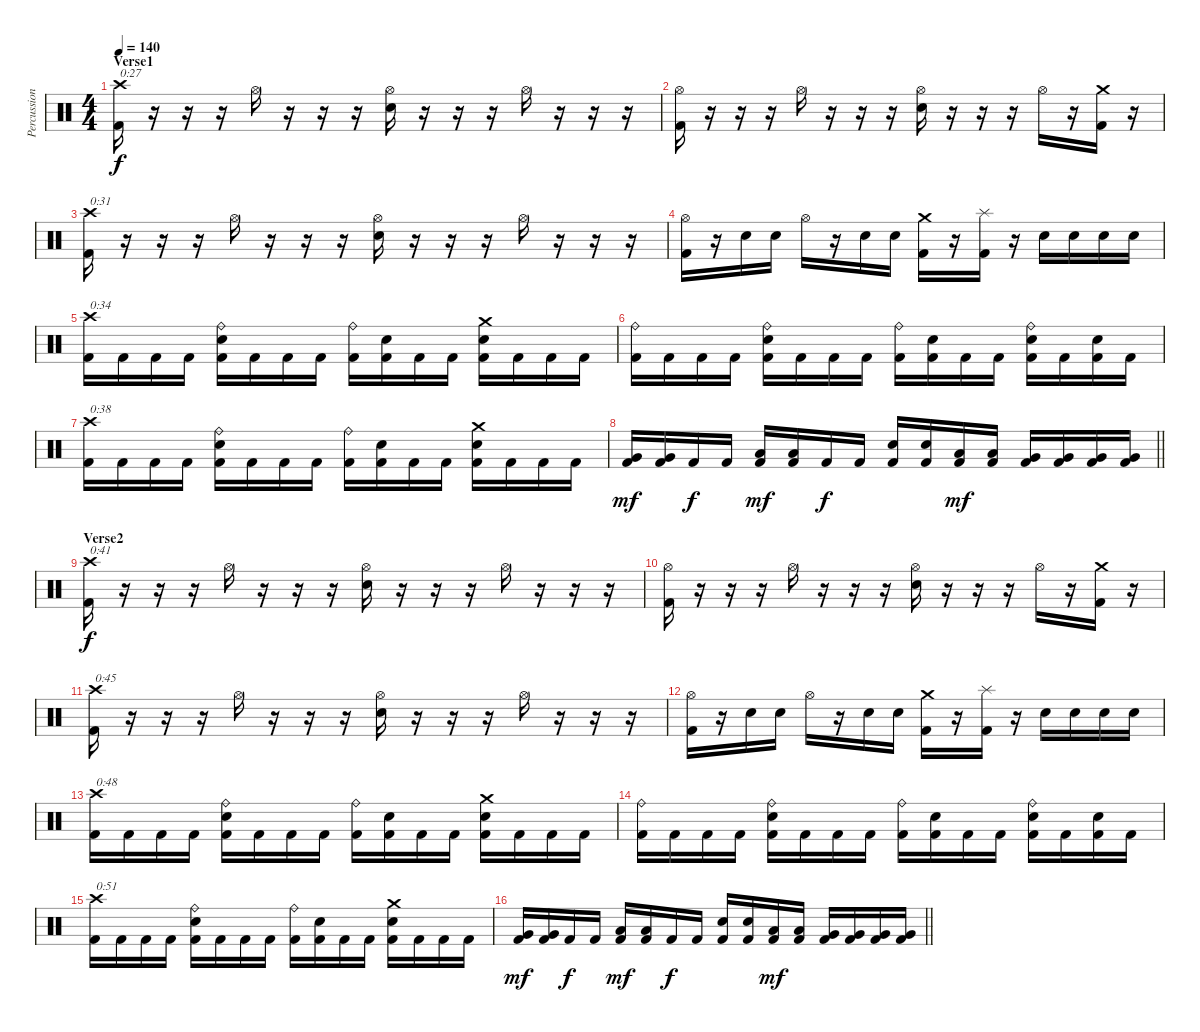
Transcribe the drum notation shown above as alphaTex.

\track ("Percussion" "Percussion") {instrument percussion}
\staff {score}
\articulation defaults
\ts (4 4)
\section ("" "Verse1")
\tempo 140
\clef neutral
\ks c
("Crash high (hit)" "Kick (hit) 2").16{txt "0:27" dy f} r.16 r.16 r.16 "Hi-Hat (open)".16 r.16 r.16 r.16 ("Hi-Hat (open)" "Electric Snare (hit)").16 r.16 r.16 r.16 "Hi-Hat (open)".16 r.16 r.16 r.16 |
("Hi-Hat (open)" "Kick (hit) 2").16 r.16 r.16 r.16 "Hi-Hat (open)".16 r.16 r.16 r.16 ("Hi-Hat (open)" "Electric Snare (hit)").16 r.16 r.16 r.16 "Hi-Hat (open)".16 r.16 ("Crash medium (hit)" "Kick (hit) 2").16 r.16 |
("Crash high (hit)" "Kick (hit) 2").16{txt "0:31"} r.16 r.16 r.16 "Hi-Hat (open)".16 r.16 r.16 r.16 ("Hi-Hat (open)" "Electric Snare (hit)").16 r.16 r.16 r.16 "Hi-Hat (open)".16 r.16 r.16 r.16 |
("Hi-Hat (open)" "Kick (hit) 2").16 r.16 "Electric Snare (hit)".16 "Electric Snare (hit)".16 "Hi-Hat (open)".16 r.16 "Electric Snare (hit)".16 "Electric Snare (hit)".16 ("Crash medium (hit)" "Kick (hit) 2").16 r.16 ("Splash (hit)" "Kick (hit) 2").16 r.16 "Electric Snare (hit)".16 "Electric Snare (hit)".16 "Electric Snare (hit)".16 "Electric Snare (hit)".16 |
("Crash high (hit)" "Kick (hit) 2").16{txt "0:34"} "Kick (hit) 2".16 "Kick (hit) 2".16 "Kick (hit) 2".16 ("Ride (bell)" "Electric Snare (hit)" "Kick (hit) 2").16 "Kick (hit) 2".16 "Kick (hit) 2".16 "Kick (hit) 2".16 ("Ride (bell)" "Kick (hit) 2").16 ("Electric Snare (hit)" "Kick (hit) 2").16 "Kick (hit) 2".16 "Kick (hit) 2".16 ("Crash medium (hit)" "Electric Snare (hit)" "Kick (hit) 2").16 "Kick (hit) 2".16 "Kick (hit) 2".16 "Kick (hit) 2".16 |
("Ride (bell)" "Kick (hit) 2").16 "Kick (hit) 2".16 "Kick (hit) 2".16 "Kick (hit) 2".16 ("Ride (bell)" "Electric Snare (hit)" "Kick (hit) 2").16 "Kick (hit) 2".16 "Kick (hit) 2".16 "Kick (hit) 2".16 ("Ride (bell)" "Kick (hit) 2").16 ("Electric Snare (hit)" "Kick (hit) 2").16 "Kick (hit) 2".16 "Kick (hit) 2".16 ("Ride (bell)" "Electric Snare (hit)" "Kick (hit) 2").16 "Kick (hit) 2".16 ("Electric Snare (hit)" "Kick (hit) 2").16 "Kick (hit) 2".16 |
("Crash high (hit)" "Kick (hit) 2").16{txt "0:38"} "Kick (hit) 2".16 "Kick (hit) 2".16 "Kick (hit) 2".16 ("Ride (bell)" "Electric Snare (hit)" "Kick (hit) 2").16 "Kick (hit) 2".16 "Kick (hit) 2".16 "Kick (hit) 2".16 ("Ride (bell)" "Kick (hit) 2").16 ("Electric Snare (hit)" "Kick (hit) 2").16 "Kick (hit) 2".16 "Kick (hit) 2".16 ("Crash medium (hit)" "Electric Snare (hit)" "Kick (hit) 2").16 "Kick (hit) 2".16 "Kick (hit) 2".16 "Kick (hit) 2".16 |
\barLineRight lightlight
("Very Low Tom (hit)" "Kick (hit) 2").16{dy mf} ("Very Low Tom (hit)" "Kick (hit) 2").16 "Kick (hit) 2".16{dy f} "Kick (hit) 2".16 ("Low Floor Tom (hit)" "Kick (hit) 2").16{dy mf} ("Low Floor Tom (hit)" "Kick (hit) 2").16 "Kick (hit) 2".16{dy f} "Kick (hit) 2".16 ("Electric Snare (hit)" "Kick (hit) 2").16 ("Electric Snare (hit)" "Kick (hit) 2").16 ("Low Tom (hit)" "Kick (hit) 2").16{dy mf} ("Low Tom (hit)" "Kick (hit) 2").16 ("Very Low Tom (hit)" "Kick (hit) 2").16 ("Very Low Tom (hit)" "Kick (hit) 2").16 ("Very Low Tom (hit)" "Kick (hit) 2").16 ("Very Low Tom (hit)" "Kick (hit) 2").16 |
\section ("" "Verse2")
("Crash high (hit)" "Kick (hit) 2").16{txt "0:41" dy f} r.16 r.16 r.16 "Hi-Hat (open)".16 r.16 r.16 r.16 ("Hi-Hat (open)" "Electric Snare (hit)").16 r.16 r.16 r.16 "Hi-Hat (open)".16 r.16 r.16 r.16 |
("Hi-Hat (open)" "Kick (hit) 2").16 r.16 r.16 r.16 "Hi-Hat (open)".16 r.16 r.16 r.16 ("Hi-Hat (open)" "Electric Snare (hit)").16 r.16 r.16 r.16 "Hi-Hat (open)".16 r.16 ("Crash medium (hit)" "Kick (hit) 2").16 r.16 |
("Crash high (hit)" "Kick (hit) 2").16{txt "0:45"} r.16 r.16 r.16 "Hi-Hat (open)".16 r.16 r.16 r.16 ("Hi-Hat (open)" "Electric Snare (hit)").16 r.16 r.16 r.16 "Hi-Hat (open)".16 r.16 r.16 r.16 |
("Hi-Hat (open)" "Kick (hit) 2").16 r.16 "Electric Snare (hit)".16 "Electric Snare (hit)".16 "Hi-Hat (open)".16 r.16 "Electric Snare (hit)".16 "Electric Snare (hit)".16 ("Crash medium (hit)" "Kick (hit) 2").16 r.16 ("Splash (hit)" "Kick (hit) 2").16 r.16 "Electric Snare (hit)".16 "Electric Snare (hit)".16 "Electric Snare (hit)".16 "Electric Snare (hit)".16 |
("Crash high (hit)" "Kick (hit) 2").16{txt "0:48"} "Kick (hit) 2".16 "Kick (hit) 2".16 "Kick (hit) 2".16 ("Ride (bell)" "Electric Snare (hit)" "Kick (hit) 2").16 "Kick (hit) 2".16 "Kick (hit) 2".16 "Kick (hit) 2".16 ("Ride (bell)" "Kick (hit) 2").16 ("Electric Snare (hit)" "Kick (hit) 2").16 "Kick (hit) 2".16 "Kick (hit) 2".16 ("Crash medium (hit)" "Electric Snare (hit)" "Kick (hit) 2").16 "Kick (hit) 2".16 "Kick (hit) 2".16 "Kick (hit) 2".16 |
("Ride (bell)" "Kick (hit) 2").16 "Kick (hit) 2".16 "Kick (hit) 2".16 "Kick (hit) 2".16 ("Ride (bell)" "Electric Snare (hit)" "Kick (hit) 2").16 "Kick (hit) 2".16 "Kick (hit) 2".16 "Kick (hit) 2".16 ("Ride (bell)" "Kick (hit) 2").16 ("Electric Snare (hit)" "Kick (hit) 2").16 "Kick (hit) 2".16 "Kick (hit) 2".16 ("Ride (bell)" "Electric Snare (hit)" "Kick (hit) 2").16 "Kick (hit) 2".16 ("Electric Snare (hit)" "Kick (hit) 2").16 "Kick (hit) 2".16 |
("Crash high (hit)" "Kick (hit) 2").16{txt "0:51"} "Kick (hit) 2".16 "Kick (hit) 2".16 "Kick (hit) 2".16 ("Ride (bell)" "Electric Snare (hit)" "Kick (hit) 2").16 "Kick (hit) 2".16 "Kick (hit) 2".16 "Kick (hit) 2".16 ("Ride (bell)" "Kick (hit) 2").16 ("Electric Snare (hit)" "Kick (hit) 2").16 "Kick (hit) 2".16 "Kick (hit) 2".16 ("Crash medium (hit)" "Electric Snare (hit)" "Kick (hit) 2").16 "Kick (hit) 2".16 "Kick (hit) 2".16 "Kick (hit) 2".16 |
\barLineRight lightlight
("Very Low Tom (hit)" "Kick (hit) 2").16{dy mf} ("Very Low Tom (hit)" "Kick (hit) 2").16 "Kick (hit) 2".16{dy f} "Kick (hit) 2".16 ("Low Floor Tom (hit)" "Kick (hit) 2").16{dy mf} ("Low Floor Tom (hit)" "Kick (hit) 2").16 "Kick (hit) 2".16{dy f} "Kick (hit) 2".16 ("Electric Snare (hit)" "Kick (hit) 2").16 ("Electric Snare (hit)" "Kick (hit) 2").16 ("Low Tom (hit)" "Kick (hit) 2").16{dy mf} ("Low Tom (hit)" "Kick (hit) 2").16 ("Very Low Tom (hit)" "Kick (hit) 2").16 ("Very Low Tom (hit)" "Kick (hit) 2").16 ("Very Low Tom (hit)" "Kick (hit) 2").16 ("Very Low Tom (hit)" "Kick (hit) 2").16
